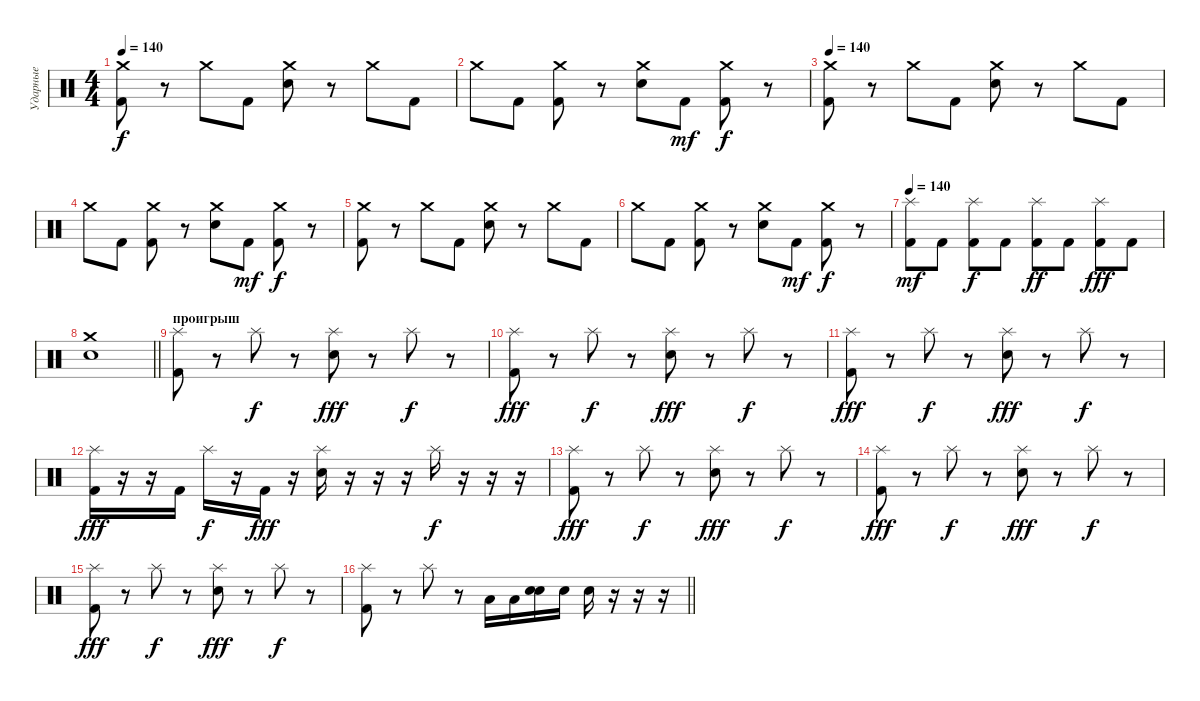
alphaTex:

\track ("Ударные" "Ударные") {instrument percussion}
\staff {score}
\articulation defaults
\ts (4 4)
\tempo 140
\clef neutral
\ks c
("Crash medium (hit)" "Kick (hit) 2").8{dy f} r.8 "Crash medium (hit)".8 "Kick (hit) 2".8 ("Crash medium (hit)" "Snare (hit) 2").8 r.8 "Crash medium (hit)".8 "Kick (hit) 2".8 |
"Crash medium (hit)".8 "Kick (hit) 2".8 ("Crash medium (hit)" "Kick (hit) 2").8 r.8 ("Crash medium (hit)" "Snare (hit) 2").8 "Kick (hit) 2".8{dy mf} ("Crash medium (hit)" "Kick (hit) 2").8{dy f} r.8 |
\tempo 140
("Crash medium (hit)" "Kick (hit) 2").8 r.8 "Crash medium (hit)".8 "Kick (hit) 2".8 ("Crash medium (hit)" "Snare (hit) 2").8 r.8 "Crash medium (hit)".8 "Kick (hit) 2".8 |
"Crash medium (hit)".8 "Kick (hit) 2".8 ("Crash medium (hit)" "Kick (hit) 2").8 r.8 ("Crash medium (hit)" "Snare (hit) 2").8 "Kick (hit) 2".8{dy mf} ("Crash medium (hit)" "Kick (hit) 2").8{dy f} r.8 |
("Crash medium (hit)" "Kick (hit) 2").8 r.8 "Crash medium (hit)".8 "Kick (hit) 2".8 ("Crash medium (hit)" "Snare (hit) 2").8 r.8 "Crash medium (hit)".8 "Kick (hit) 2".8 |
"Crash medium (hit)".8 "Kick (hit) 2".8 ("Crash medium (hit)" "Kick (hit) 2").8 r.8 ("Crash medium (hit)" "Snare (hit) 2").8 "Kick (hit) 2".8{dy mf} ("Crash medium (hit)" "Kick (hit) 2").8{dy f} r.8 |
\tempo 140
("Splash (hit)" "Kick (hit) 2").8{dy mf} "Kick (hit) 2".8 ("Splash (hit)" "Kick (hit) 2").8{dy f} "Kick (hit) 2".8 ("Splash (hit)" "Kick (hit) 2").8{dy ff} "Kick (hit) 2".8 ("Splash (hit)" "Kick (hit) 2").8{dy fff} "Kick (hit) 2".8 |
\barLineRight lightlight
("Crash medium (hit)" "Snare (hit) 2").1 |
\section ("" "проигрыш")
("Splash (hit)" "Kick (hit) 2").8 r.8 "Splash (hit)".8{dy f} r.8 ("Splash (hit)" "Snare (hit) 2").8{dy fff} r.8 "Splash (hit)".8{dy f} r.8 |
("Splash (hit)" "Kick (hit) 2").8{dy fff} r.8 "Splash (hit)".8{dy f} r.8 ("Splash (hit)" "Snare (hit) 2").8{dy fff} r.8 "Splash (hit)".8{dy f} r.8 |
("Splash (hit)" "Kick (hit) 2").8{dy fff} r.8 "Splash (hit)".8{dy f} r.8 ("Splash (hit)" "Snare (hit) 2").8{dy fff} r.8 "Splash (hit)".8{dy f} r.8 |
("Splash (hit)" "Kick (hit) 2").16{dy fff} r.16 r.16 "Kick (hit) 2".16 "Splash (hit)".16{dy f} r.16 "Kick (hit) 2".16{dy fff} r.16 ("Splash (hit)" "Snare (hit) 2").16 r.16 r.16 r.16 "Splash (hit)".16{dy f} r.16 r.16 r.16 |
("Splash (hit)" "Kick (hit) 2").8{dy fff} r.8 "Splash (hit)".8{dy f} r.8 ("Splash (hit)" "Snare (hit) 2").8{dy fff} r.8 "Splash (hit)".8{dy f} r.8 |
("Splash (hit)" "Kick (hit) 2").8{dy fff} r.8 "Splash (hit)".8{dy f} r.8 ("Splash (hit)" "Snare (hit) 2").8{dy fff} r.8 "Splash (hit)".8{dy f} r.8 |
("Splash (hit)" "Kick (hit) 2").8{dy fff} r.8 "Splash (hit)".8{dy f} r.8 ("Splash (hit)" "Snare (hit) 2").8{dy fff} r.8 "Splash (hit)".8{dy f} r.8 |
\barLineRight lightlight
("Splash (hit)" "Kick (hit) 2").8 r.8 "Splash (hit)".8 r.8 "Low Floor Tom (hit)".16 "Low Floor Tom (hit)".16 ("Snare (hit) 2" "Electric Snare (hit)").16 "Snare (hit) 2".16 "Snare (hit) 2".16 r.16 r.16 r.16
